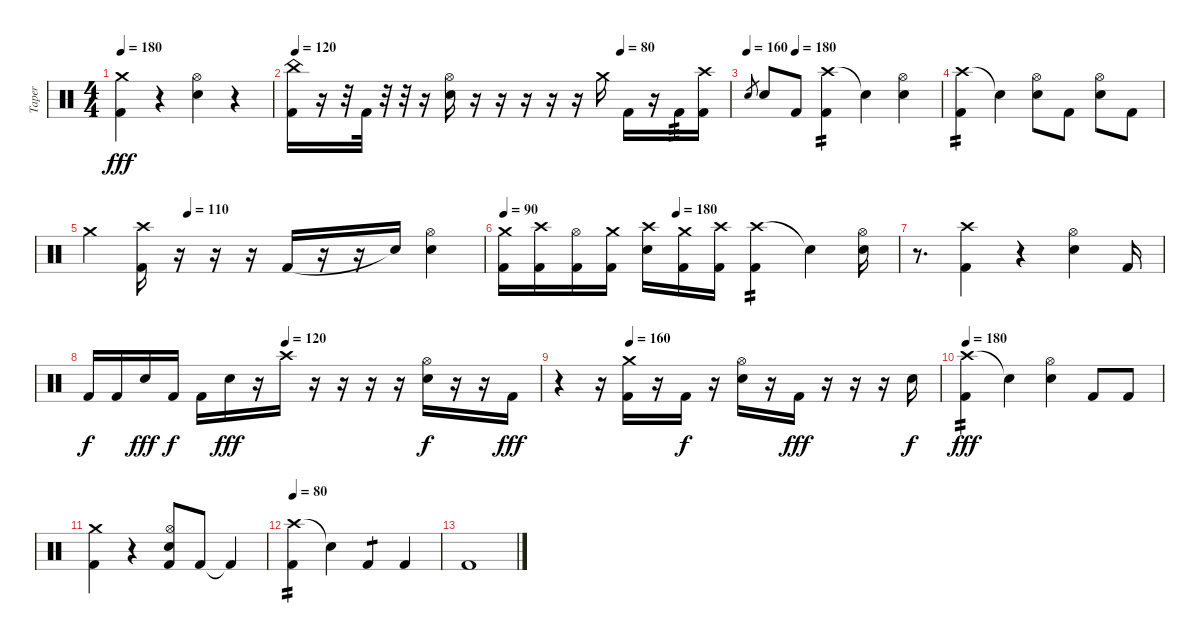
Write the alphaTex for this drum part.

\track ("Taper" "Taper") {instrument percussion}
\staff {score}
\articulation defaults
\ts (4 4)
\tempo 180
\clef neutral
\ks c
("Crash medium (hit)" "Kick (hit) 2").4{dy fff} r.4 ("Hi-Hat (open)" "Snare (hit) 2").4 r.4 |
\tempo 120
\tempo (80 0.75)
("China (hit)" "Kick (hit) 2").16 r.16 r.32 "Kick (hit) 2".32 r.32 r.32 r.16 ("Hi-Hat (open)" "Snare (hit) 2").16 r.16 r.16 r.16 r.16 r.16 "Crash medium (hit)".16 "Kick (hit) 2".16 r.16 "Kick (hit) 2".16{tp 3} ("Crash high (hit)" "Kick (hit) 2").16 |
\tempo 160
\tempo (180 0.25)
"Snare (hit) 2".8{gr} "Snare (hit) 2".8 "Kick (hit) 2".8 ("Crash high (hit)" "Kick (hit) 2").4{tp 2} "Snare (hit)"{t}.4 ("Hi-Hat (open)" "Snare (hit) 2").4 |
("Crash high (hit)" "Kick (hit) 2").4{tp 2} "Snare (hit)"{t}.4 ("Hi-Hat (open)" "Snare (hit) 2").8 "Kick (hit) 2".8 ("Hi-Hat (open)" "Snare (hit) 2").8 "Kick (hit) 2".8 |
\tempo (110 0.25)
"Crash medium (hit)".4 ("Crash high (hit)" "Kick (hit) 2").16 r.16 r.16 r.16 "Kick (hit) 2".16 r.16 r.16 "Snare (hit)"{t}.16 ("Hi-Hat (open)" "Snare (hit) 2").4 |
\tempo 90
\tempo (180 0.4375)
("Crash medium (hit)" "Kick (hit) 2").16 ("Crash high (hit)" "Kick (hit) 2").16 ("Hi-Hat (open)" "Kick (hit) 2").16 ("Crash medium (hit)" "Kick (hit) 2").16 ("Crash high (hit)" "Snare (hit) 2").16 ("Crash medium (hit)" "Kick (hit) 2").16 ("Crash high (hit)" "Kick (hit) 2").16 ("Crash high (hit)" "Kick (hit) 2").4{tp 2} "Snare (hit)"{t}.4 ("Hi-Hat (open)" "Snare (hit) 2").16 |
r.8{d} ("Crash high (hit)" "Kick (hit) 2").4 r.4 ("Hi-Hat (open)" "Snare (hit) 2").4 "Kick (hit) 2".16 |
\tempo (120 0.4375)
"Kick (hit) 2".16{dy f} "Kick (hit) 2".16 "Snare (hit) 2".16{dy fff} "Kick (hit) 2".16{dy f} "Kick (hit) 2".16 "Snare (hit) 2".16{dy fff} r.16 "Crash high (hit)".16 r.16 r.16 r.16 r.16 ("Hi-Hat (open)" "Snare (hit) 2").16{dy f} r.16 r.16 "Kick (hit) 2".16{dy fff} |
\tempo (160 0.1875)
r.4 r.16 ("Crash medium (hit)" "Kick (hit) 2").16 r.16 "Kick (hit) 2".16{dy f} r.16 ("Hi-Hat (open)" "Snare (hit) 2").16 r.16 "Kick (hit) 2".16{dy fff} r.16 r.16 r.16 "Snare (hit) 2".16{dy f} |
\tempo 180
("Crash high (hit)" "Kick (hit) 2").4{tp 2 dy fff} "Snare (hit)"{t}.4 ("Hi-Hat (open)" "Snare (hit) 2").4 "Kick (hit) 2".8 "Kick (hit) 2".8 |
("Crash medium (hit)" "Kick (hit) 2").4 r.4 ("Hi-Hat (open)" "Snare (hit) 2" "Kick (hit) 2").8 "Kick (hit) 2".8 "Kick (hit) 2"{t}.4 |
\tempo 80
("Crash high (hit)" "Kick (hit) 2").4{tp 2} "Snare (hit)"{t}.4 "Kick (hit) 2".4{tp 1} "Kick (hit) 2".4 |
"Kick (hit) 2".1
